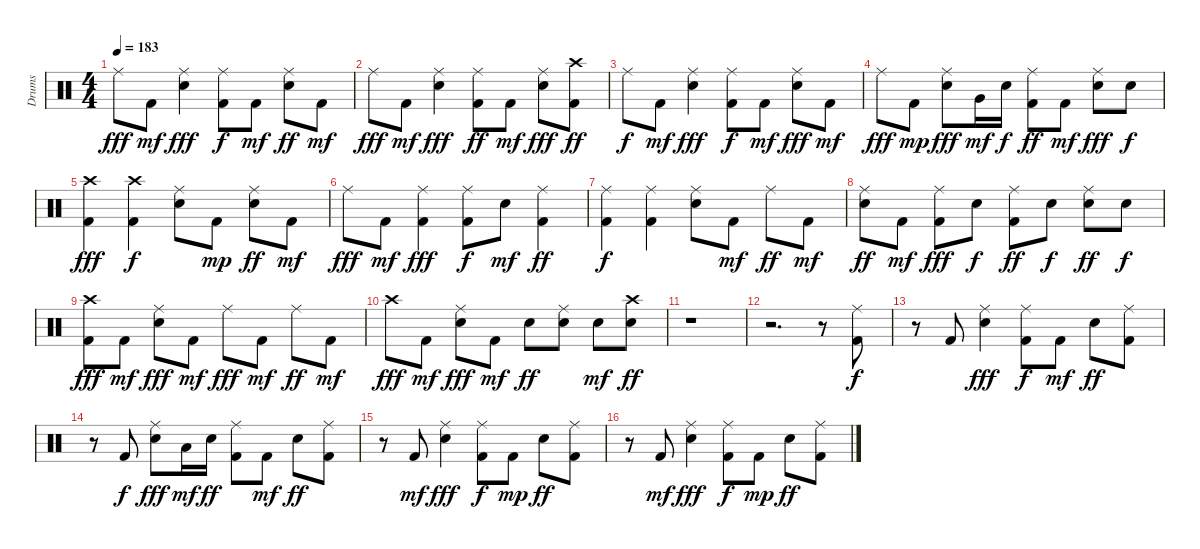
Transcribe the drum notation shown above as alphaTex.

\track ("Drums" "Drums") {instrument percussion}
\staff {score}
\articulation defaults
\ts (4 4)
\tempo 183
\clef neutral
\ks c "Ride (middle)".8{dy fff} "Kick (hit) 2".8{dy mf}
("Snare (hit) 2" "Ride (middle)").4{dy fff} ("Kick (hit) 2" "Ride (middle)").8{dy f} "Kick (hit) 2".8{dy mf} ("Snare (hit) 2" "Ride (middle)").8{dy ff} "Kick (hit) 2".8{dy mf} |
"Ride (middle)".8{dy fff} "Kick (hit) 2".8{dy mf} ("Snare (hit) 2" "Ride (middle)").4{dy fff} ("Kick (hit) 2" "Ride (middle)").8{dy ff} "Kick (hit) 2".8{dy mf} ("Snare (hit) 2" "Ride (middle)").8{dy fff} ("Kick (hit) 2" "Crash high (hit)").8{dy ff} |
"Ride (middle)".8{dy f} "Kick (hit) 2".8{dy mf} ("Snare (hit) 2" "Ride (middle)").4{dy fff} ("Kick (hit) 2" "Ride (middle)").8{dy f} "Kick (hit) 2".8{dy mf} ("Snare (hit) 2" "Ride (middle)").8{dy fff} "Kick (hit) 2".8{dy mf} |
"Ride (middle)".8{dy fff} "Kick (hit) 2".8{dy mp} ("Snare (hit) 2" "Ride (middle)").8{dy fff} "Very Low Tom (hit)".16{dy mf} "Snare (hit) 2".16{dy f} ("Kick (hit) 2" "Ride (middle)").8{dy ff} "Kick (hit) 2".8{dy mf} ("Snare (hit) 2" "Ride (middle)").8{dy fff} "Snare (hit) 2".8{dy f} |
("Kick (hit) 2" "Crash high (hit)").4{dy fff} ("Kick (hit) 2" "Crash high (hit)").4{dy f} ("Snare (hit) 2" "Ride (middle)").8 "Kick (hit) 2".8{dy mp} ("Snare (hit) 2" "Ride (middle)").8{dy ff} "Kick (hit) 2".8{dy mf} |
"Ride (middle)".8{dy fff} "Kick (hit) 2".8{dy mf} ("Kick (hit) 2" "Ride (middle)").4{dy fff} ("Kick (hit) 2" "Ride (middle)").8{dy f} "Snare (hit) 2".8{dy mf} ("Kick (hit) 2" "Ride (middle)").4{dy ff} |
("Kick (hit) 2" "Ride (middle)").4{dy f} ("Kick (hit) 2" "Ride (middle)").4 ("Snare (hit) 2" "Ride (middle)").8 "Kick (hit) 2".8{dy mf} "Ride (middle)".8{dy ff} "Kick (hit) 2".8{dy mf} |
("Snare (hit) 2" "Ride (middle)").8{dy ff} "Kick (hit) 2".8{dy mf} ("Kick (hit) 2" "Ride (middle)").8{dy fff} "Snare (hit) 2".8{dy f} ("Kick (hit) 2" "Ride (middle)").8{dy ff} "Snare (hit) 2".8{dy f} ("Snare (hit) 2" "Ride (middle)").8{dy ff} "Snare (hit) 2".8{dy f} |
("Kick (hit) 2" "Crash high (hit)").8{dy fff} "Kick (hit) 2".8{dy mf} ("Snare (hit) 2" "Ride (middle)").8{dy fff} "Kick (hit) 2".8{dy mf} "Ride (middle)".8{dy fff} "Kick (hit) 2".8{dy mf} "Ride (middle)".8{dy ff} "Kick (hit) 2".8{dy mf} |
"Crash high (hit)".8{dy fff} "Kick (hit) 2".8{dy mf} ("Snare (hit) 2" "Ride (middle)").8{dy fff} "Kick (hit) 2".8{dy mf} "Snare (hit) 2".8{dy ff} ("Snare (hit) 2" "Ride (middle)").8 "Snare (hit) 2".8{dy mf} ("Snare (hit) 2" "Crash high (hit)").8{dy ff} |
r.1 |
r.2{d} r.8 ("Kick (hit) 2" "Ride (middle)").8{dy f} |
r.8 "Kick (hit) 2".8 ("Snare (hit) 2" "Ride (middle)").4{dy fff} ("Kick (hit) 2" "Ride (middle)").8{dy f} "Kick (hit) 2".8{dy mf} "Snare (hit) 2".8{dy ff} ("Kick (hit) 2" "Ride (middle)").8 |
r.8 "Kick (hit) 2".8{dy f} ("Snare (hit) 2" "Ride (middle)").8{dy fff} "Low Floor Tom (hit)".16{dy mf} "Snare (hit) 2".16{dy ff} ("Kick (hit) 2" "Ride (middle)").8 "Kick (hit) 2".8{dy mf} "Snare (hit) 2".8{dy ff} ("Kick (hit) 2" "Ride (middle)").8 |
r.8 "Kick (hit) 2".8{dy mf} ("Snare (hit) 2" "Ride (middle)").4{dy fff} ("Kick (hit) 2" "Ride (middle)").8{dy f} "Kick (hit) 2".8{dy mp} "Snare (hit) 2".8{dy ff} ("Kick (hit) 2" "Ride (middle)").8 |
r.8 "Kick (hit) 2".8{dy mf} ("Snare (hit) 2" "Ride (middle)").4{dy fff} ("Kick (hit) 2" "Ride (middle)").8{dy f} "Kick (hit) 2".8{dy mp} "Snare (hit) 2".8{dy ff} ("Kick (hit) 2" "Ride (middle)").8
